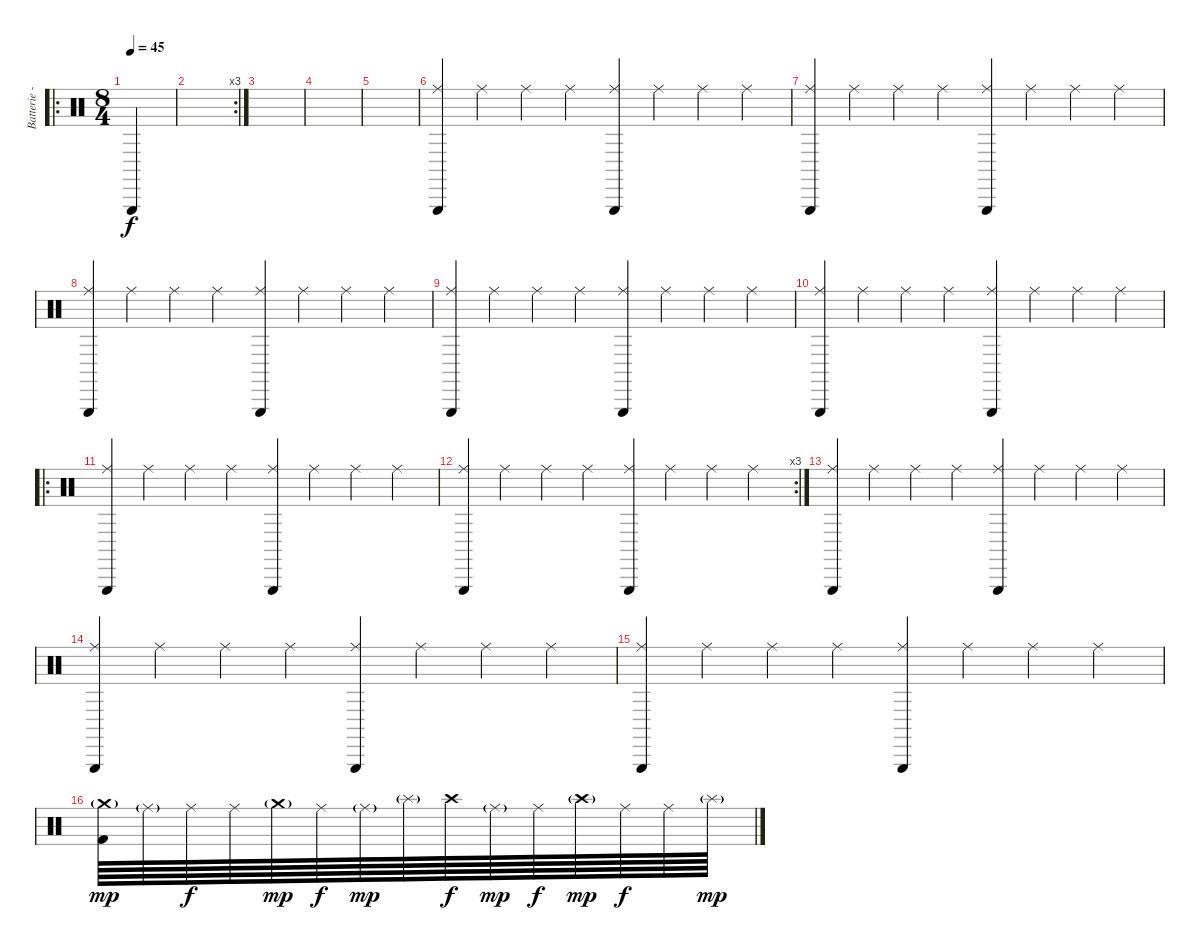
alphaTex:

\track ("Batterie - " "Batterie -") {instrument percussion}
\staff {score}
\articulation defaults
\ro
\ts (8 4)
\tempo 45
\clef neutral
\ks c "Triangle (hit)".4{dy f}
|
\rc 3
|
|
|
|
("Triangle (hit)" "Ride (middle)").4 "Ride (middle)".4 "Ride (middle)".4 "Ride (middle)".4 ("Ride (middle)" "Triangle (hit)").4 "Ride (middle)".4 "Ride (middle)".4 "Ride (middle)".4 |
("Triangle (hit)" "Ride (middle)").4 "Ride (middle)".4 "Ride (middle)".4 "Ride (middle)".4 ("Ride (middle)" "Triangle (hit)").4 "Ride (middle)".4 "Ride (middle)".4 "Ride (middle)".4 |
("Triangle (hit)" "Ride (middle)").4 "Ride (middle)".4 "Ride (middle)".4 "Ride (middle)".4 ("Ride (middle)" "Triangle (hit)").4 "Ride (middle)".4 "Ride (middle)".4 "Ride (middle)".4 |
("Triangle (hit)" "Ride (middle)").4 "Ride (middle)".4 "Ride (middle)".4 "Ride (middle)".4 ("Ride (middle)" "Triangle (hit)").4 "Ride (middle)".4 "Ride (middle)".4 "Ride (middle)".4 |
("Triangle (hit)" "Ride (middle)").4 "Ride (middle)".4 "Ride (middle)".4 "Ride (middle)".4 ("Ride (middle)" "Triangle (hit)").4 "Ride (middle)".4 "Ride (middle)".4 "Ride (middle)".4 |
\ro
("Triangle (hit)" "Ride (middle)").4 "Ride (middle)".4 "Ride (middle)".4 "Ride (middle)".4 ("Ride (middle)" "Triangle (hit)").4 "Ride (middle)".4 "Ride (middle)".4 "Ride (middle)".4 |
\rc 3
("Triangle (hit)" "Ride (middle)").4 "Ride (middle)".4 "Ride (middle)".4 "Ride (middle)".4 ("Ride (middle)" "Triangle (hit)").4 "Ride (middle)".4 "Ride (middle)".4 "Ride (middle)".4 |
("Triangle (hit)" "Ride (middle)").4 "Ride (middle)".4 "Ride (middle)".4 "Ride (middle)".4 ("Ride (middle)" "Triangle (hit)").4 "Ride (middle)".4 "Ride (middle)".4 "Ride (middle)".4 |
("Triangle (hit)" "Ride (middle)").4 "Ride (middle)".4 "Ride (middle)".4 "Ride (middle)".4 ("Ride (middle)" "Triangle (hit)").4 "Ride (middle)".4 "Ride (middle)".4 "Ride (middle)".4 |
("Triangle (hit)" "Ride (middle)").4 "Ride (middle)".4 "Ride (middle)".4 "Ride (middle)".4 ("Ride (middle)" "Triangle (hit)").4 "Ride (middle)".4 "Ride (middle)".4 "Ride (middle)".4 |
("Kick (hit) 2" "Crash medium (hit)"{g}).64{dy mp} "Ride (middle)"{g}.64 "Ride (middle)".64{dy f} "Ride (middle)".64 "Crash medium (hit)"{g}.64{dy mp} "Ride (middle)".64{dy f} "Ride (middle)"{g}.64{dy mp} "Splash (hit)"{g}.64 "Crash high (hit)".64{dy f} "Ride (middle)"{g}.64{dy mp} "Ride (middle)".64{dy f} "Crash high (hit)"{g}.64{dy mp} "Ride (middle)".64{dy f} "Ride (middle)".64 "Splash (hit)"{g}.64{dy mp}
